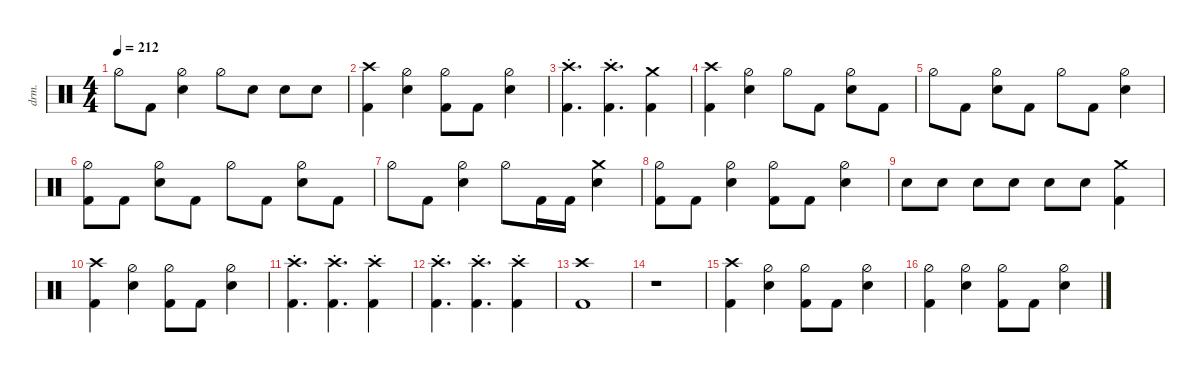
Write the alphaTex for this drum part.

\defaultSystemsLayout 4
\hideDynamics
\bracketExtendMode nobrackets
\track ("Drums" "drm.") {defaultSystemsLayout 4 multiBarRest instrument percussion}
\staff
\articulation defaults
\ts (4 4)
\tempo 212
\clef neutral
\ks c "Hi-Hat (half)".8{dy f} "Kick (hit) 2".8
("Hi-Hat (half)" "Snare (hit) 2").4 "Hi-Hat (half)".8 "Snare (hit) 2".8 "Snare (hit) 2".8 "Snare (hit) 2".8 |
("Crash high (hit)" "Kick (hit) 2").4 ("Hi-Hat (half)" "Snare (hit) 2").4 ("Hi-Hat (half)" "Kick (hit) 2").8 "Kick (hit) 2".8 ("Hi-Hat (half)" "Snare (hit) 2").4 |
("Crash high (hit)"{st} "Kick (hit) 2").4{d} ("Crash high (hit)"{st} "Kick (hit) 2").4{d} ("Crash medium (hit)" "Kick (hit) 2").4 |
("Crash high (hit)" "Kick (hit) 2").4 ("Hi-Hat (half)" "Snare (hit) 2").4 "Hi-Hat (half)".8 "Kick (hit) 2".8 ("Hi-Hat (half)" "Snare (hit) 2").8 "Kick (hit) 2".8 |
"Hi-Hat (half)".8 "Kick (hit) 2".8 ("Hi-Hat (half)" "Snare (hit) 2").8 "Kick (hit) 2".8 "Hi-Hat (half)".8 "Kick (hit) 2".8 ("Hi-Hat (half)" "Snare (hit) 2").4 |
("Hi-Hat (half)" "Kick (hit) 2").8 "Kick (hit) 2".8 ("Hi-Hat (half)" "Snare (hit) 2").8 "Kick (hit) 2".8 "Hi-Hat (half)".8 "Kick (hit) 2".8 ("Hi-Hat (half)" "Snare (hit) 2").8 "Kick (hit) 2".8 |
"Hi-Hat (half)".8 "Kick (hit) 2".8 ("Hi-Hat (half)" "Snare (hit) 2").4 "Hi-Hat (half)".8 "Kick (hit) 2".16 "Kick (hit) 2".16 ("Snare (hit) 2" "Crash medium (hit)").4 |
("Hi-Hat (half)" "Kick (hit) 2").8 "Kick (hit) 2".8 ("Hi-Hat (half)" "Snare (hit) 2").4 ("Hi-Hat (half)" "Kick (hit) 2").8 "Kick (hit) 2".8 ("Hi-Hat (half)" "Snare (hit) 2").4 |
"Snare (hit) 2".8 "Snare (hit) 2".8 "Snare (hit) 2".8 "Snare (hit) 2".8 "Snare (hit) 2".8 "Snare (hit) 2".8 ("Crash medium (hit)" "Kick (hit) 2").4 |
("Crash high (hit)" "Kick (hit) 2").4 ("Hi-Hat (half)" "Snare (hit) 2").4 ("Hi-Hat (half)" "Kick (hit) 2").8 "Kick (hit) 2".8 ("Hi-Hat (half)" "Snare (hit) 2").4 |
("Crash high (hit)"{st} "Kick (hit) 2").4{d} ("Crash high (hit)"{st} "Kick (hit) 2").4{d} ("Crash high (hit)"{st} "Kick (hit) 2").4 |
("Crash high (hit)"{st} "Kick (hit) 2").4{d} ("Crash high (hit)"{st} "Kick (hit) 2").4{d} ("Crash high (hit)"{st} "Kick (hit) 2").4 |
("Kick (hit) 2" "Crash high (hit)").1 |
r.1 |
("Crash high (hit)" "Kick (hit) 2").4 ("Hi-Hat (half)" "Snare (hit) 2").4 ("Hi-Hat (half)" "Kick (hit) 2").8 "Kick (hit) 2".8 ("Hi-Hat (half)" "Snare (hit) 2").4 |
("Kick (hit) 2" "Hi-Hat (half)").4 ("Hi-Hat (half)" "Snare (hit) 2").4 ("Hi-Hat (half)" "Kick (hit) 2").8 "Kick (hit) 2".8 ("Hi-Hat (half)" "Snare (hit) 2").4
